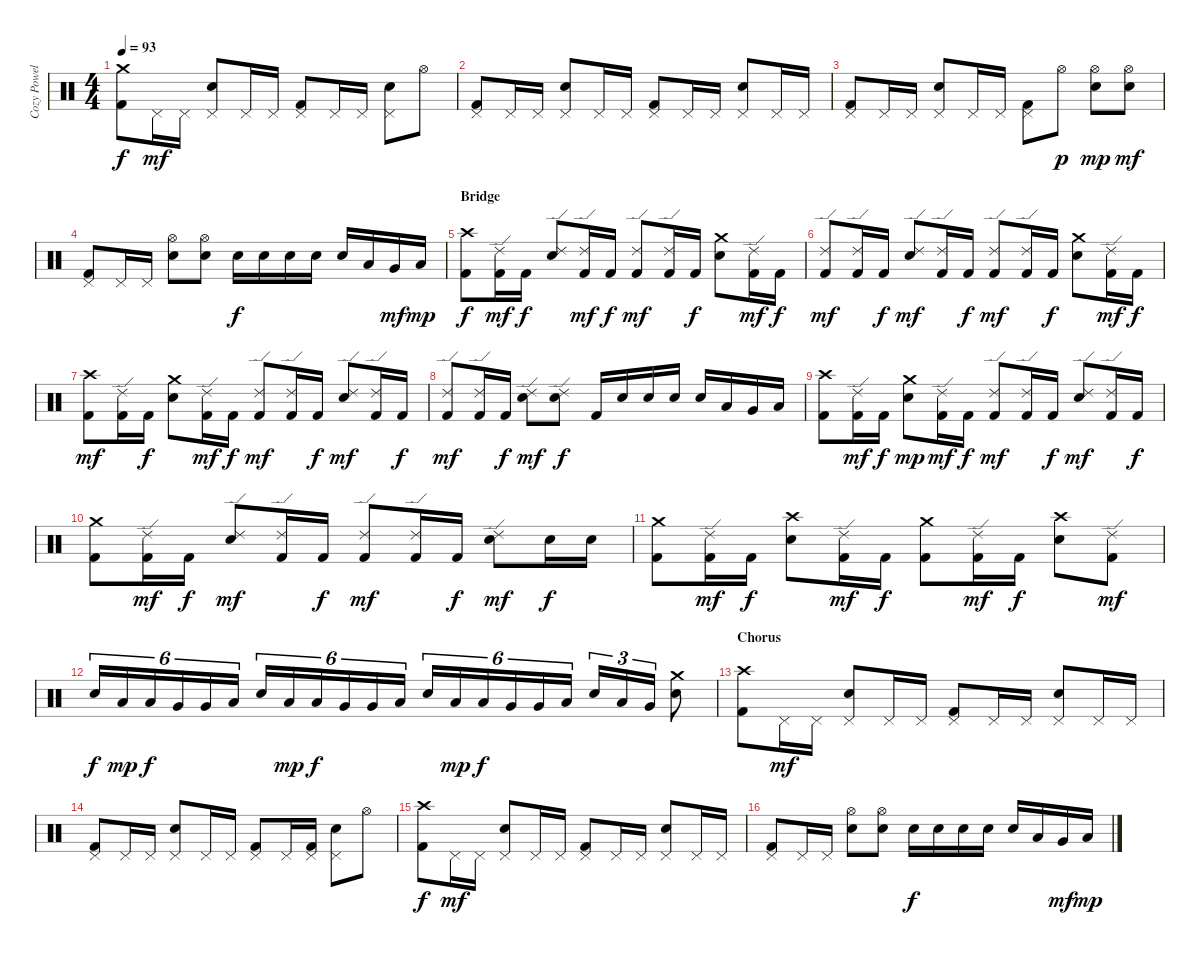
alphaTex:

\track ("Cozy Powell" "Cozy Powel") {instrument percussion}
\staff {score}
\articulation defaults
\ts (4 4)
\tempo 93
\clef neutral
\ks c
("Kick (hit) 2" "Crash medium (hit)").8{dy f} "Pedal Hi-Hat (hit)".16{dy mf} "Pedal Hi-Hat (hit)".16 ("Pedal Hi-Hat (hit)" "Snare (hit) 2").8 "Pedal Hi-Hat (hit)".16 "Pedal Hi-Hat (hit)".16 ("Kick (hit) 2" "Pedal Hi-Hat (hit)").8 "Pedal Hi-Hat (hit)".16 "Pedal Hi-Hat (hit)".16 ("Pedal Hi-Hat (hit)" "Snare (hit) 2").8 "Hi-Hat (open)".8 |
("Kick (hit) 2" "Pedal Hi-Hat (hit)").8 "Pedal Hi-Hat (hit)".16 "Pedal Hi-Hat (hit)".16 ("Pedal Hi-Hat (hit)" "Snare (hit) 2").8 "Pedal Hi-Hat (hit)".16 "Pedal Hi-Hat (hit)".16 ("Kick (hit) 2" "Pedal Hi-Hat (hit)").8 "Pedal Hi-Hat (hit)".16 "Pedal Hi-Hat (hit)".16 ("Pedal Hi-Hat (hit)" "Snare (hit) 2").8 "Pedal Hi-Hat (hit)".16 "Pedal Hi-Hat (hit)".16 |
("Kick (hit) 2" "Pedal Hi-Hat (hit)").8 "Pedal Hi-Hat (hit)".16 "Pedal Hi-Hat (hit)".16 ("Pedal Hi-Hat (hit)" "Snare (hit) 2").8 "Pedal Hi-Hat (hit)".16 "Pedal Hi-Hat (hit)".16 ("Kick (hit) 2" "Pedal Hi-Hat (hit)").8 "Hi-Hat (open)".8{dy p} ("Hi-Hat (open)" "Snare (hit) 2").8{dy mp} ("Hi-Hat (open)" "Snare (hit) 2").8{dy mf} |
("Kick (hit) 2" "Pedal Hi-Hat (hit)").8 "Pedal Hi-Hat (hit)".16 "Pedal Hi-Hat (hit)".16 ("Hi-Hat (open)" "Snare (hit) 2").8 ("Hi-Hat (open)" "Snare (hit) 2").8 "Snare (hit) 2".16{dy f} "Snare (hit) 2".16 "Snare (hit) 2".16 "Snare (hit) 2".16 "Snare (hit) 2".16 "Low Tom (hit)".16 "Very Low Tom (hit)".16{dy mf} "Low Floor Tom (hit)".16{dy mp} |
\section ("" "Bridge")
("Kick (hit) 2" "Crash high (hit)").8{dy f} ("Kick (hit) 2" "Ride (edge) 2").16{dy mf} "Kick (hit) 2".16{dy f} ("Ride (edge) 2" "Snare (hit) 2").8 ("Kick (hit) 2" "Ride (edge) 2").16{dy mf} "Kick (hit) 2".16{dy f} ("Kick (hit) 2" "Ride (edge) 2").8{dy mf} ("Kick (hit) 2" "Ride (edge) 2").16 "Kick (hit) 2".16{dy f} ("Crash medium (hit)" "Snare (hit) 2").8 ("Kick (hit) 2" "Ride (edge) 2").16{dy mf} "Kick (hit) 2".16{dy f} |
("Kick (hit) 2" "Ride (edge) 2").8{dy mf} ("Kick (hit) 2" "Ride (edge) 2").16 "Kick (hit) 2".16{dy f} ("Ride (edge) 2" "Snare (hit) 2").8{dy mf} ("Kick (hit) 2" "Ride (edge) 2").16 "Kick (hit) 2".16{dy f} ("Kick (hit) 2" "Ride (edge) 2").8{dy mf} ("Kick (hit) 2" "Ride (edge) 2").16 "Kick (hit) 2".16{dy f} ("Crash medium (hit)" "Snare (hit) 2").8 ("Kick (hit) 2" "Ride (edge) 2").16{dy mf} "Kick (hit) 2".16{dy f} |
("Kick (hit) 2" "Crash high (hit)").8{dy mf} ("Kick (hit) 2" "Ride (edge) 2").16 "Kick (hit) 2".16{dy f} ("Crash medium (hit)" "Snare (hit) 2").8 ("Kick (hit) 2" "Ride (edge) 2").16{dy mf} "Kick (hit) 2".16{dy f} ("Kick (hit) 2" "Ride (edge) 2").8{dy mf} ("Kick (hit) 2" "Ride (edge) 2").16 "Kick (hit) 2".16{dy f} ("Ride (edge) 2" "Snare (hit) 2").8{dy mf} ("Kick (hit) 2" "Ride (edge) 2").16 "Kick (hit) 2".16{dy f} |
("Kick (hit) 2" "Ride (edge) 2").8{dy mf} ("Kick (hit) 2" "Ride (edge) 2").16 "Kick (hit) 2".16{dy f} ("Ride (edge) 2" "Snare (hit) 2").8{dy mf} ("Ride (edge) 2" "Snare (hit) 2").8{dy f} "Kick (hit) 2".16 "Snare (hit) 2".16 "Snare (hit) 2".16 "Snare (hit) 2".16 "Snare (hit) 2".16 "Low Tom (hit)".16 "Very Low Tom (hit)".16 "Low Floor Tom (hit)".16 |
("Kick (hit) 2" "Crash high (hit)").8 ("Kick (hit) 2" "Ride (edge) 2").16{dy mf} "Kick (hit) 2".16{dy f} ("Crash medium (hit)" "Snare (hit) 2").8{dy mp} ("Kick (hit) 2" "Ride (edge) 2").16{dy mf} "Kick (hit) 2".16{dy f} ("Kick (hit) 2" "Ride (edge) 2").8{dy mf} ("Kick (hit) 2" "Ride (edge) 2").16 "Kick (hit) 2".16{dy f} ("Ride (edge) 2" "Snare (hit) 2").8{dy mf} ("Kick (hit) 2" "Ride (edge) 2").16 "Kick (hit) 2".16{dy f} |
("Kick (hit) 2" "Crash medium (hit)").8 ("Kick (hit) 2" "Ride (edge) 2").16{dy mf} "Kick (hit) 2".16{dy f} ("Ride (edge) 2" "Snare (hit) 2").8{dy mf} ("Kick (hit) 2" "Ride (edge) 2").16 "Kick (hit) 2".16{dy f} ("Kick (hit) 2" "Ride (edge) 2").8{dy mf} ("Kick (hit) 2" "Ride (edge) 2").16 "Kick (hit) 2".16{dy f} ("Ride (edge) 2" "Snare (hit) 2").8{dy mf} "Snare (hit) 2".16{dy f} "Snare (hit) 2".16 |
("Kick (hit) 2" "Crash medium (hit)").8 ("Kick (hit) 2" "Ride (edge) 2").16{dy mf} "Kick (hit) 2".16{dy f} ("Crash high (hit)" "Snare (hit) 2").8 ("Kick (hit) 2" "Ride (edge) 2").16{dy mf} "Kick (hit) 2".16{dy f} ("Kick (hit) 2" "Crash medium (hit)").8 ("Kick (hit) 2" "Ride (edge) 2").16{dy mf} "Kick (hit) 2".16{dy f} ("Crash high (hit)" "Snare (hit) 2").8 ("Kick (hit) 2" "Ride (edge) 2").8{dy mf} |
"Snare (hit) 2".16{tu (6 4) dy f} "Low Tom (hit)".16{tu (6 4) dy mp} "Low Tom (hit)".16{tu (6 4) dy f} "Very Low Tom (hit)".16{tu (6 4)} "Very Low Tom (hit)".16{tu (6 4)} "Low Floor Tom (hit)".16{tu (6 4)} "Snare (hit) 2".16{tu (6 4)} "Low Tom (hit)".16{tu (6 4) dy mp} "Low Tom (hit)".16{tu (6 4) dy f} "Very Low Tom (hit)".16{tu (6 4)} "Very Low Tom (hit)".16{tu (6 4)} "Low Floor Tom (hit)".16{tu (6 4)} "Snare (hit) 2".16{tu (6 4)} "Low Tom (hit)".16{tu (6 4) dy mp} "Low Tom (hit)".16{tu (6 4) dy f} "Very Low Tom (hit)".16{tu (6 4)} "Very Low Tom (hit)".16{tu (6 4)} "Low Floor Tom (hit)".16{tu (6 4)} "Snare (hit) 2".16{tu (3 2)} "Low Tom (hit)".16{tu (3 2)} "Very Low Tom (hit)".16{tu (3 2)} ("Crash medium (hit)" "Snare (hit) 2").8 |
\section ("" "Chorus")
("Kick (hit) 2" "Crash high (hit)").8 "Pedal Hi-Hat (hit)".16{dy mf} "Pedal Hi-Hat (hit)".16 ("Pedal Hi-Hat (hit)" "Snare (hit) 2").8 "Pedal Hi-Hat (hit)".16 "Pedal Hi-Hat (hit)".16 ("Kick (hit) 2" "Pedal Hi-Hat (hit)").8 "Pedal Hi-Hat (hit)".16 "Pedal Hi-Hat (hit)".16 ("Pedal Hi-Hat (hit)" "Snare (hit) 2").8 "Pedal Hi-Hat (hit)".16 "Pedal Hi-Hat (hit)".16 |
("Kick (hit) 2" "Pedal Hi-Hat (hit)").8 "Pedal Hi-Hat (hit)".16 "Pedal Hi-Hat (hit)".16 ("Pedal Hi-Hat (hit)" "Snare (hit) 2").8 "Pedal Hi-Hat (hit)".16 "Pedal Hi-Hat (hit)".16 ("Kick (hit) 2" "Pedal Hi-Hat (hit)").8 "Pedal Hi-Hat (hit)".16 ("Kick (hit) 2" "Pedal Hi-Hat (hit)").16 ("Pedal Hi-Hat (hit)" "Snare (hit) 2").8 "Hi-Hat (open)".8 |
("Kick (hit) 2" "Crash high (hit)").8{dy f} "Pedal Hi-Hat (hit)".16{dy mf} "Pedal Hi-Hat (hit)".16 ("Pedal Hi-Hat (hit)" "Snare (hit) 2").8 "Pedal Hi-Hat (hit)".16 "Pedal Hi-Hat (hit)".16 ("Kick (hit) 2" "Pedal Hi-Hat (hit)").8 "Pedal Hi-Hat (hit)".16 "Pedal Hi-Hat (hit)".16 ("Pedal Hi-Hat (hit)" "Snare (hit) 2").8 "Pedal Hi-Hat (hit)".16 "Pedal Hi-Hat (hit)".16 |
("Kick (hit) 2" "Pedal Hi-Hat (hit)").8 "Pedal Hi-Hat (hit)".16 "Pedal Hi-Hat (hit)".16 ("Hi-Hat (open)" "Snare (hit) 2").8 ("Hi-Hat (open)" "Snare (hit) 2").8 "Snare (hit) 2".16{dy f} "Snare (hit) 2".16 "Snare (hit) 2".16 "Snare (hit) 2".16 "Snare (hit) 2".16 "Low Tom (hit)".16 "Very Low Tom (hit)".16{dy mf} "Low Floor Tom (hit)".16{dy mp}
